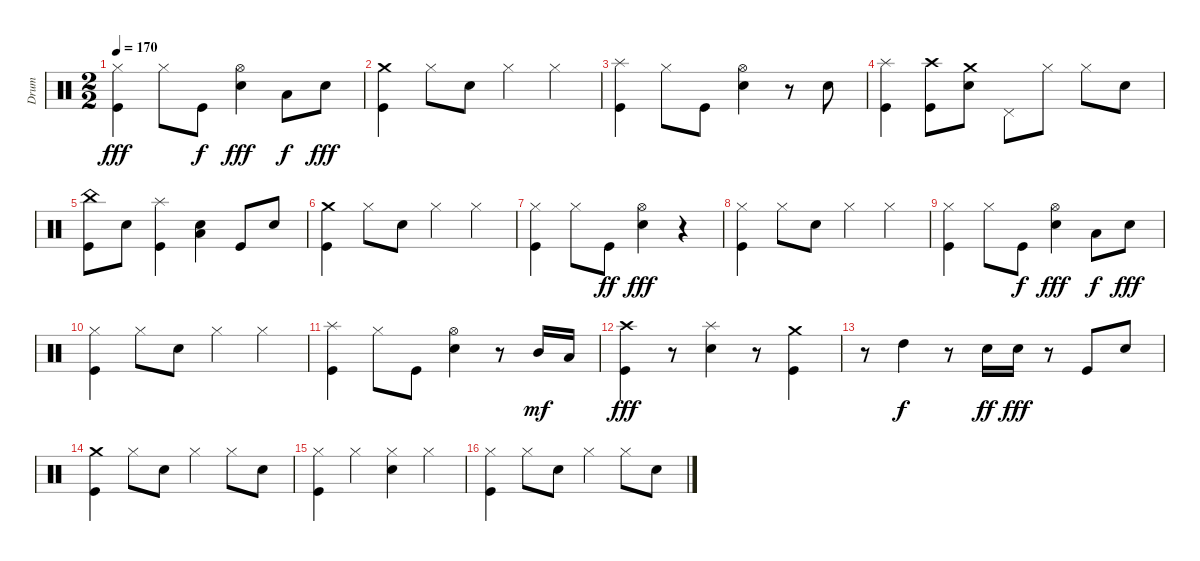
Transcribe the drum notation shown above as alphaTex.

\track ("Drum" "Drum") {instrument percussion}
\staff {score}
\articulation defaults
\ts (2 2)
\tempo 170
\clef neutral
\ks c
("Kick (hit)" "Hi-Hat (closed)").4{dy fff} "Hi-Hat (closed)".8 "Kick (hit)".8{dy f} ("Electric Snare (hit)" "Hi-Hat (open)").4{dy fff} "Low Floor Tom (hit)".8{dy f} "Electric Snare (hit)".8{dy fff} |
("Crash medium (hit)" "Kick (hit)").4 "Hi-Hat (closed)".8 "Electric Snare (hit)".8 "Hi-Hat (closed)".4 "Hi-Hat (closed)".4 |
("Splash (hit)" "Kick (hit)").4 "Hi-Hat (closed)".8 "Kick (hit)".8 ("Electric Snare (hit)" "Hi-Hat (open)").4 r.8 "Electric Snare (hit)".8 |
("Splash (hit)" "Kick (hit)").4 ("Crash high (hit)" "Kick (hit)").8 ("Crash medium (hit)" "Electric Snare (hit)").8 "Pedal Hi-Hat (hit)".8 "Hi-Hat (closed)".8 "Hi-Hat (closed)".8 "Electric Snare (hit)".8 |
("China (hit)" "Kick (hit)").8 "Electric Snare (hit)".8 ("Splash (hit)" "Kick (hit)").4 ("Low Floor Tom (hit)" "Electric Snare (hit)").4 "Kick (hit)".8 "Electric Snare (hit)".8 |
("Crash medium (hit)" "Kick (hit)").4 "Hi-Hat (closed)".8 "Electric Snare (hit)".8 "Hi-Hat (closed)".4 "Hi-Hat (closed)".4 |
("Kick (hit)" "Hi-Hat (closed)").4 "Hi-Hat (closed)".8 "Kick (hit)".8{dy ff} ("Electric Snare (hit)" "Hi-Hat (open)").4{dy fff} r.4 |
("Hi-Hat (closed)" "Kick (hit)").4 "Hi-Hat (closed)".8 "Electric Snare (hit)".8 "Hi-Hat (closed)".4 "Hi-Hat (closed)".4 |
("Kick (hit)" "Hi-Hat (closed)").4 "Hi-Hat (closed)".8 "Kick (hit)".8{dy f} ("Electric Snare (hit)" "Hi-Hat (open)").4{dy fff} "Low Floor Tom (hit)".8{dy f} "Electric Snare (hit)".8{dy fff} |
("Hi-Hat (closed)" "Kick (hit)").4 "Hi-Hat (closed)".8 "Electric Snare (hit)".8 "Hi-Hat (closed)".4 "Hi-Hat (closed)".4 |
("Splash (hit)" "Kick (hit)").4 "Hi-Hat (closed)".8 "Kick (hit)".8 ("Electric Snare (hit)" "Hi-Hat (open)").4 r.8 "Mid Tom (hit)".16{dy mf} "Low Tom (hit)".16 |
("Kick (hit)" "Crash high (hit)").4{dy fff} r.8 ("Splash (hit)" "Electric Snare (hit)").4 r.8 ("Crash medium (hit)" "Kick (hit)").4 |
r.8 "High Tom (hit)".4{dy f} r.8 "Electric Snare (hit)".16{dy ff} "Electric Snare (hit)".16{dy fff} r.8 "Kick (hit)".8 "Electric Snare (hit)".8 |
("Crash medium (hit)" "Kick (hit)").4 "Hi-Hat (closed)".8 "Electric Snare (hit)".8 "Hi-Hat (closed)".4 "Hi-Hat (closed)".8 "Electric Snare (hit)".8 |
("Kick (hit)" "Hi-Hat (closed)").4 "Hi-Hat (closed)".4 ("Electric Snare (hit)" "Hi-Hat (closed)").4 "Hi-Hat (closed)".4 |
("Kick (hit)" "Hi-Hat (closed)").4 "Hi-Hat (closed)".8 "Electric Snare (hit)".8 "Hi-Hat (closed)".4 "Hi-Hat (closed)".8 "Electric Snare (hit)".8
